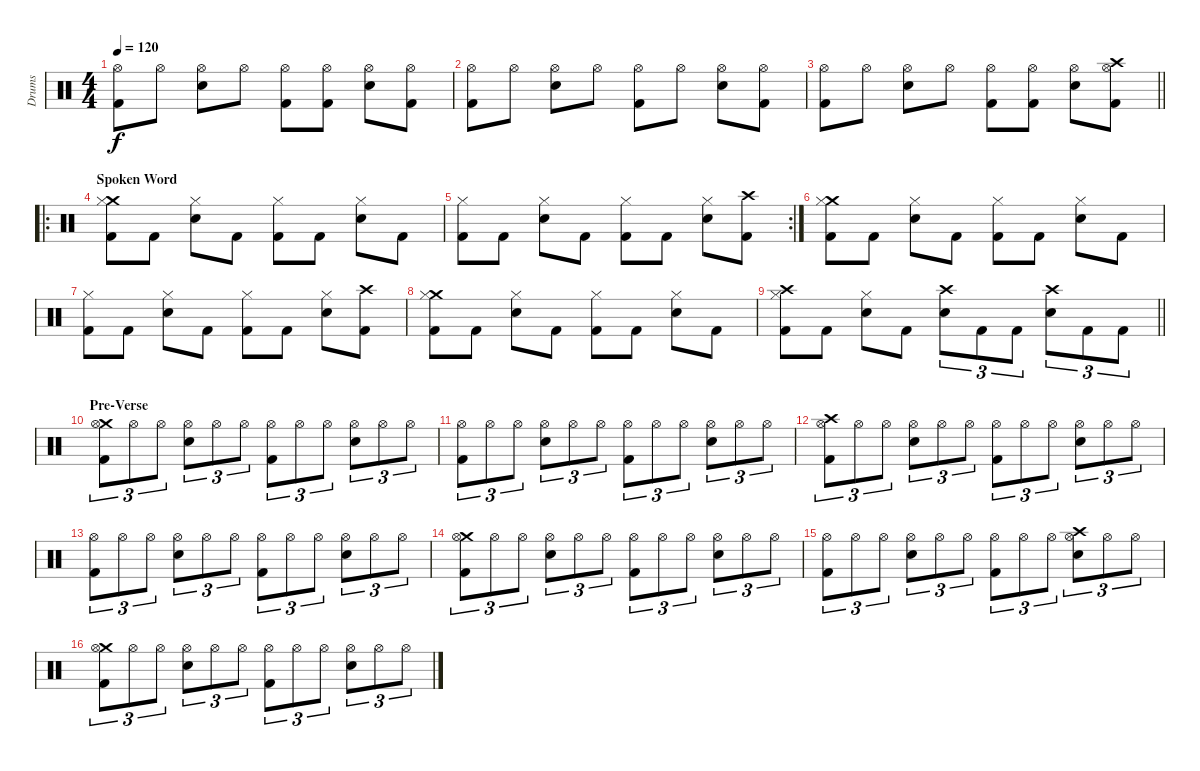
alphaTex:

\track ("Drums" "Drums") {instrument percussion}
\staff {score}
\articulation defaults
\ts (4 4)
\tempo 120
\clef neutral
\ks c
("Hi-Hat (open)" "Kick (hit) 2").8{dy f} "Hi-Hat (open)".8 ("Hi-Hat (open)" "Snare (hit) 2").8 "Hi-Hat (open)".8 ("Hi-Hat (open)" "Kick (hit) 2").8 ("Hi-Hat (open)" "Kick (hit) 2").8 ("Hi-Hat (open)" "Snare (hit) 2").8 ("Hi-Hat (open)" "Kick (hit) 2").8 |
("Hi-Hat (open)" "Kick (hit) 2").8 "Hi-Hat (open)".8 ("Hi-Hat (open)" "Snare (hit) 2").8 "Hi-Hat (open)".8 ("Hi-Hat (open)" "Kick (hit) 2").8 "Hi-Hat (open)".8 ("Hi-Hat (open)" "Snare (hit) 2").8 ("Hi-Hat (open)" "Kick (hit) 2").8 |
\barLineRight lightlight
("Hi-Hat (open)" "Kick (hit) 2").8 "Hi-Hat (open)".8 ("Hi-Hat (open)" "Snare (hit) 2").8 "Hi-Hat (open)".8 ("Hi-Hat (open)" "Kick (hit) 2").8 ("Hi-Hat (open)" "Kick (hit) 2").8 ("Hi-Hat (open)" "Snare (hit) 2").8 ("Crash high (hit)" "Hi-Hat (open)" "Kick (hit) 2").8 |
\ro
\section ("" "Spoken Word")
("Crash medium (hit)" "Hi-Hat (closed)" "Kick (hit) 2").8 "Kick (hit) 2".8 ("Hi-Hat (closed)" "Snare (hit) 2").8 "Kick (hit) 2".8 ("Hi-Hat (closed)" "Kick (hit) 2").8 "Kick (hit) 2".8 ("Hi-Hat (closed)" "Snare (hit) 2").8 "Kick (hit) 2".8 |
\rc 2
("Hi-Hat (closed)" "Kick (hit) 2").8 "Kick (hit) 2".8 ("Hi-Hat (closed)" "Snare (hit) 2").8 "Kick (hit) 2".8 ("Hi-Hat (closed)" "Kick (hit) 2").8 "Kick (hit) 2".8 ("Hi-Hat (closed)" "Snare (hit) 2").8 ("Crash high (hit)" "Kick (hit) 2").8 |
("Crash medium (hit)" "Hi-Hat (closed)" "Kick (hit) 2").8 "Kick (hit) 2".8 ("Hi-Hat (closed)" "Snare (hit) 2").8 "Kick (hit) 2".8 ("Hi-Hat (closed)" "Kick (hit) 2").8 "Kick (hit) 2".8 ("Hi-Hat (closed)" "Snare (hit) 2").8 "Kick (hit) 2".8 |
("Hi-Hat (closed)" "Kick (hit) 2").8 "Kick (hit) 2".8 ("Hi-Hat (closed)" "Snare (hit) 2").8 "Kick (hit) 2".8 ("Hi-Hat (closed)" "Kick (hit) 2").8 "Kick (hit) 2".8 ("Hi-Hat (closed)" "Snare (hit) 2").8 ("Crash high (hit)" "Kick (hit) 2").8 |
("Crash medium (hit)" "Hi-Hat (closed)" "Kick (hit) 2").8 "Kick (hit) 2".8 ("Hi-Hat (closed)" "Snare (hit) 2").8 "Kick (hit) 2".8 ("Hi-Hat (closed)" "Kick (hit) 2").8 "Kick (hit) 2".8 ("Hi-Hat (closed)" "Snare (hit) 2").8 "Kick (hit) 2".8 |
\barLineRight lightlight
("Crash high (hit)" "Hi-Hat (closed)" "Kick (hit) 2").8 "Kick (hit) 2".8 ("Hi-Hat (closed)" "Snare (hit) 2").8 "Kick (hit) 2".8 ("Crash high (hit)" "Snare (hit) 2").8{tu (3 2)} "Kick (hit) 2".8{tu (3 2)} "Kick (hit) 2".8{tu (3 2)} ("Crash high (hit)" "Snare (hit) 2").8{tu (3 2)} "Kick (hit) 2".8{tu (3 2)} "Kick (hit) 2".8{tu (3 2)} |
\section ("" "Pre-Verse")
("Crash medium (hit)" "Hi-Hat (open)" "Kick (hit) 2").8{tu (3 2)} "Hi-Hat (open)".8{tu (3 2)} "Hi-Hat (open)".8{tu (3 2)} ("Hi-Hat (open)" "Snare (hit) 2").8{tu (3 2)} "Hi-Hat (open)".8{tu (3 2)} "Hi-Hat (open)".8{tu (3 2)} ("Hi-Hat (open)" "Kick (hit) 2").8{tu (3 2)} "Hi-Hat (open)".8{tu (3 2)} "Hi-Hat (open)".8{tu (3 2)} ("Hi-Hat (open)" "Snare (hit) 2").8{tu (3 2)} "Hi-Hat (open)".8{tu (3 2)} "Hi-Hat (open)".8{tu (3 2)} |
("Hi-Hat (open)" "Kick (hit) 2").8{tu (3 2)} "Hi-Hat (open)".8{tu (3 2)} "Hi-Hat (open)".8{tu (3 2)} ("Hi-Hat (open)" "Snare (hit) 2").8{tu (3 2)} "Hi-Hat (open)".8{tu (3 2)} "Hi-Hat (open)".8{tu (3 2)} ("Hi-Hat (open)" "Kick (hit) 2").8{tu (3 2)} "Hi-Hat (open)".8{tu (3 2)} "Hi-Hat (open)".8{tu (3 2)} ("Hi-Hat (open)" "Snare (hit) 2").8{tu (3 2)} "Hi-Hat (open)".8{tu (3 2)} "Hi-Hat (open)".8{tu (3 2)} |
("Crash high (hit)" "Hi-Hat (open)" "Kick (hit) 2").8{tu (3 2)} "Hi-Hat (open)".8{tu (3 2)} "Hi-Hat (open)".8{tu (3 2)} ("Hi-Hat (open)" "Snare (hit) 2").8{tu (3 2)} "Hi-Hat (open)".8{tu (3 2)} "Hi-Hat (open)".8{tu (3 2)} ("Hi-Hat (open)" "Kick (hit) 2").8{tu (3 2)} "Hi-Hat (open)".8{tu (3 2)} "Hi-Hat (open)".8{tu (3 2)} ("Hi-Hat (open)" "Snare (hit) 2").8{tu (3 2)} "Hi-Hat (open)".8{tu (3 2)} "Hi-Hat (open)".8{tu (3 2)} |
("Hi-Hat (open)" "Kick (hit) 2").8{tu (3 2)} "Hi-Hat (open)".8{tu (3 2)} "Hi-Hat (open)".8{tu (3 2)} ("Hi-Hat (open)" "Snare (hit) 2").8{tu (3 2)} "Hi-Hat (open)".8{tu (3 2)} "Hi-Hat (open)".8{tu (3 2)} ("Hi-Hat (open)" "Kick (hit) 2").8{tu (3 2)} "Hi-Hat (open)".8{tu (3 2)} "Hi-Hat (open)".8{tu (3 2)} ("Hi-Hat (open)" "Snare (hit) 2").8{tu (3 2)} "Hi-Hat (open)".8{tu (3 2)} "Hi-Hat (open)".8{tu (3 2)} |
("Crash medium (hit)" "Hi-Hat (open)" "Kick (hit) 2").8{tu (3 2)} "Hi-Hat (open)".8{tu (3 2)} "Hi-Hat (open)".8{tu (3 2)} ("Hi-Hat (open)" "Snare (hit) 2").8{tu (3 2)} "Hi-Hat (open)".8{tu (3 2)} "Hi-Hat (open)".8{tu (3 2)} ("Hi-Hat (open)" "Kick (hit) 2").8{tu (3 2)} "Hi-Hat (open)".8{tu (3 2)} "Hi-Hat (open)".8{tu (3 2)} ("Hi-Hat (open)" "Snare (hit) 2").8{tu (3 2)} "Hi-Hat (open)".8{tu (3 2)} "Hi-Hat (open)".8{tu (3 2)} |
("Hi-Hat (open)" "Kick (hit) 2").8{tu (3 2)} "Hi-Hat (open)".8{tu (3 2)} "Hi-Hat (open)".8{tu (3 2)} ("Hi-Hat (open)" "Snare (hit) 2").8{tu (3 2)} "Hi-Hat (open)".8{tu (3 2)} "Hi-Hat (open)".8{tu (3 2)} ("Hi-Hat (open)" "Kick (hit) 2").8{tu (3 2)} "Hi-Hat (open)".8{tu (3 2)} "Hi-Hat (open)".8{tu (3 2)} ("Crash high (hit)" "Hi-Hat (open)" "Snare (hit) 2").8{tu (3 2)} "Hi-Hat (open)".8{tu (3 2)} "Hi-Hat (open)".8{tu (3 2)} |
("Crash medium (hit)" "Hi-Hat (open)" "Kick (hit) 2").8{tu (3 2)} "Hi-Hat (open)".8{tu (3 2)} "Hi-Hat (open)".8{tu (3 2)} ("Hi-Hat (open)" "Snare (hit) 2").8{tu (3 2)} "Hi-Hat (open)".8{tu (3 2)} "Hi-Hat (open)".8{tu (3 2)} ("Hi-Hat (open)" "Kick (hit) 2").8{tu (3 2)} "Hi-Hat (open)".8{tu (3 2)} "Hi-Hat (open)".8{tu (3 2)} ("Hi-Hat (open)" "Snare (hit) 2").8{tu (3 2)} "Hi-Hat (open)".8{tu (3 2)} "Hi-Hat (open)".8{tu (3 2)}
